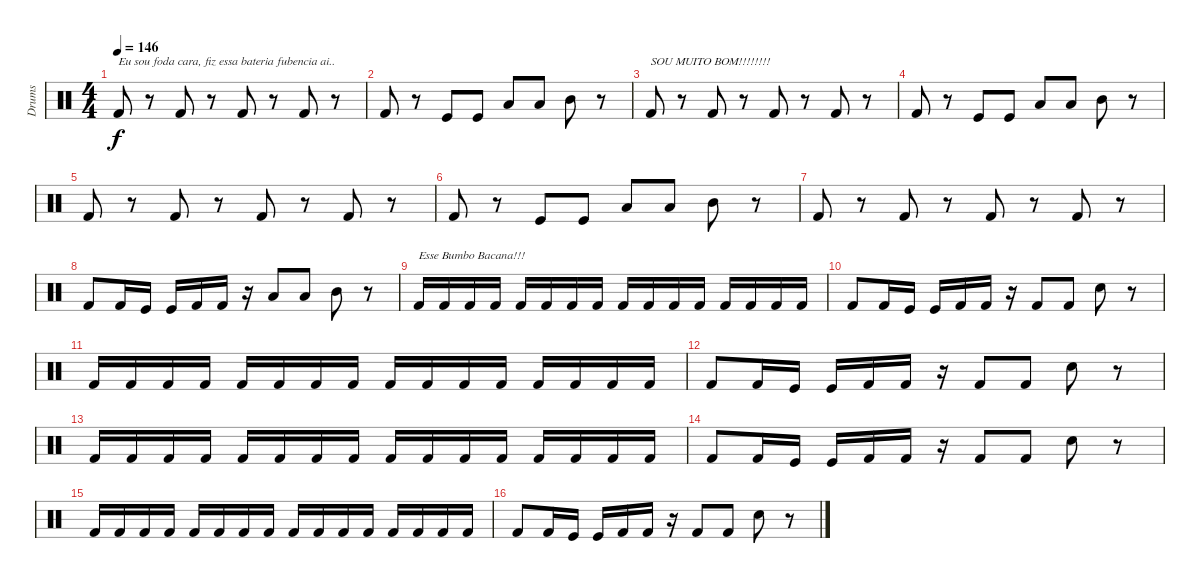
\track ("Drums" "Drums") {instrument percussion}
\staff {score}
\articulation defaults
\ts (4 4)
\tempo 146
\clef neutral
\ks c "Kick (hit) 2".8{txt "Eu sou foda cara, fiz essa bateria fubencia ai.. " dy f}
r.8 "Kick (hit) 2".8 r.8 "Kick (hit) 2".8 r.8 "Kick (hit) 2".8 r.8 |
"Kick (hit) 2".8 r.8 "Kick (hit)".8 "Kick (hit)".8 "Low Tom (hit)".8 "Low Tom (hit)".8 "Mid Tom (hit)".8 r.8 |
"Kick (hit) 2".8{txt "SOU MUITO BOM!!!!!!!!"} r.8 "Kick (hit) 2".8 r.8 "Kick (hit) 2".8 r.8 "Kick (hit) 2".8 r.8 |
"Kick (hit) 2".8 r.8 "Kick (hit)".8 "Kick (hit)".8 "Low Tom (hit)".8 "Low Tom (hit)".8 "Mid Tom (hit)".8 r.8 |
"Kick (hit) 2".8 r.8 "Kick (hit) 2".8 r.8 "Kick (hit) 2".8 r.8 "Kick (hit) 2".8 r.8 |
"Kick (hit) 2".8 r.8 "Kick (hit)".8 "Kick (hit)".8 "Low Tom (hit)".8 "Low Tom (hit)".8 "Mid Tom (hit)".8 r.8 |
"Kick (hit) 2".8 r.8 "Kick (hit) 2".8 r.8 "Kick (hit) 2".8 r.8 "Kick (hit) 2".8 r.8 |
"Kick (hit) 2".8 "Kick (hit) 2".16 "Kick (hit)".16 "Kick (hit)".16 "Kick (hit) 2".16 "Kick (hit) 2".16 r.16 "Low Tom (hit)".8 "Low Tom (hit)".8 "Mid Tom (hit)".8 r.8 |
"Kick (hit) 2".16{txt "Esse Bumbo Bacana!!!"} "Kick (hit) 2".16 "Kick (hit) 2".16 "Kick (hit) 2".16 "Kick (hit) 2".16 "Kick (hit) 2".16 "Kick (hit) 2".16 "Kick (hit) 2".16 "Kick (hit) 2".16 "Kick (hit) 2".16 "Kick (hit) 2".16 "Kick (hit) 2".16 "Kick (hit) 2".16 "Kick (hit) 2".16 "Kick (hit) 2".16 "Kick (hit) 2".16 |
"Kick (hit) 2".8 "Kick (hit) 2".16 "Kick (hit)".16 "Kick (hit)".16 "Kick (hit) 2".16 "Kick (hit) 2".16 r.16 "Kick (hit) 2".8 "Kick (hit) 2".8 "Snare (hit) 2".8 r.8 |
"Kick (hit) 2".16 "Kick (hit) 2".16 "Kick (hit) 2".16 "Kick (hit) 2".16 "Kick (hit) 2".16 "Kick (hit) 2".16 "Kick (hit) 2".16 "Kick (hit) 2".16 "Kick (hit) 2".16 "Kick (hit) 2".16 "Kick (hit) 2".16 "Kick (hit) 2".16 "Kick (hit) 2".16 "Kick (hit) 2".16 "Kick (hit) 2".16 "Kick (hit) 2".16 |
"Kick (hit) 2".8 "Kick (hit) 2".16 "Kick (hit)".16 "Kick (hit)".16 "Kick (hit) 2".16 "Kick (hit) 2".16 r.16 "Kick (hit) 2".8 "Kick (hit) 2".8 "Snare (hit) 2".8 r.8 |
"Kick (hit) 2".16 "Kick (hit) 2".16 "Kick (hit) 2".16 "Kick (hit) 2".16 "Kick (hit) 2".16 "Kick (hit) 2".16 "Kick (hit) 2".16 "Kick (hit) 2".16 "Kick (hit) 2".16 "Kick (hit) 2".16 "Kick (hit) 2".16 "Kick (hit) 2".16 "Kick (hit) 2".16 "Kick (hit) 2".16 "Kick (hit) 2".16 "Kick (hit) 2".16 |
"Kick (hit) 2".8 "Kick (hit) 2".16 "Kick (hit)".16 "Kick (hit)".16 "Kick (hit) 2".16 "Kick (hit) 2".16 r.16 "Kick (hit) 2".8 "Kick (hit) 2".8 "Snare (hit) 2".8 r.8 |
"Kick (hit) 2".16 "Kick (hit) 2".16 "Kick (hit) 2".16 "Kick (hit) 2".16 "Kick (hit) 2".16 "Kick (hit) 2".16 "Kick (hit) 2".16 "Kick (hit) 2".16 "Kick (hit) 2".16 "Kick (hit) 2".16 "Kick (hit) 2".16 "Kick (hit) 2".16 "Kick (hit) 2".16 "Kick (hit) 2".16 "Kick (hit) 2".16 "Kick (hit) 2".16 |
"Kick (hit) 2".8 "Kick (hit) 2".16 "Kick (hit)".16 "Kick (hit)".16 "Kick (hit) 2".16 "Kick (hit) 2".16 r.16 "Kick (hit) 2".8 "Kick (hit) 2".8 "Snare (hit) 2".8 r.8
